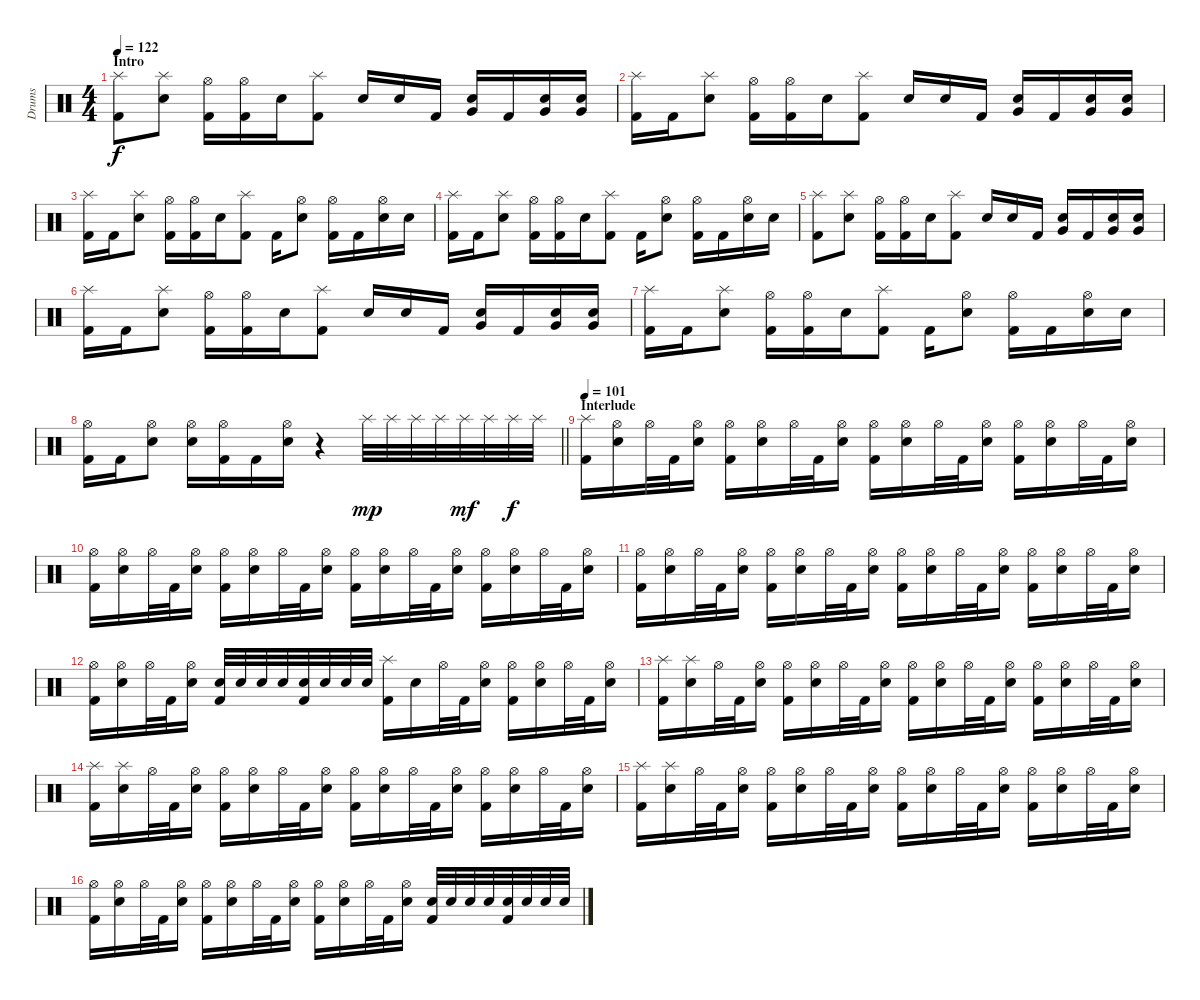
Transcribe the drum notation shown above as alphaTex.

\track ("Drums" "Drums") {instrument percussion}
\staff {score}
\articulation defaults
\ts (4 4)
\section ("" "Intro")
\tempo 122
\clef neutral
\ks c
("Splash (hit)" "Kick (hit) 2").8{dy f} ("Splash (hit)" "Electric Snare (hit)").8 ("Hi-Hat (open)" "Kick (hit) 2").16 ("Hi-Hat (open)" "Kick (hit) 2").16 "Electric Snare (hit)".16 ("Splash (hit)" "Kick (hit) 2").8 "Electric Snare (hit)".16 "Electric Snare (hit)".16 "Kick (hit) 2".16 ("Very Low Tom (hit)" "Electric Snare (hit)").16 "Kick (hit) 2".16 ("Very Low Tom (hit)" "Electric Snare (hit)").16 ("Very Low Tom (hit)" "Electric Snare (hit)").16 |
("Splash (hit)" "Kick (hit) 2").16 "Kick (hit) 2".16 ("Splash (hit)" "Electric Snare (hit)").8 ("Hi-Hat (open)" "Kick (hit) 2").16 ("Hi-Hat (open)" "Kick (hit) 2").16 "Electric Snare (hit)".16 ("Splash (hit)" "Kick (hit) 2").8 "Electric Snare (hit)".16 "Electric Snare (hit)".16 "Kick (hit) 2".16 ("Very Low Tom (hit)" "Electric Snare (hit)").16 "Kick (hit) 2".16 ("Very Low Tom (hit)" "Electric Snare (hit)").16 ("Very Low Tom (hit)" "Electric Snare (hit)").16 |
("Splash (hit)" "Kick (hit) 2").16 "Kick (hit) 2".16 ("Splash (hit)" "Electric Snare (hit)").8 ("Hi-Hat (open)" "Kick (hit) 2").16 ("Hi-Hat (open)" "Kick (hit) 2").16 "Electric Snare (hit)".16 ("Splash (hit)" "Kick (hit) 2").8 "Kick (hit) 2".16 ("Hi-Hat (open)" "Electric Snare (hit)").8 ("Hi-Hat (open)" "Kick (hit) 2").16 "Kick (hit) 2".16 ("Hi-Hat (open)" "Electric Snare (hit)").16 "Electric Snare (hit)".16 |
("Splash (hit)" "Kick (hit) 2").16 "Kick (hit) 2".16 ("Splash (hit)" "Electric Snare (hit)").8 ("Hi-Hat (open)" "Kick (hit) 2").16 ("Hi-Hat (open)" "Kick (hit) 2").16 "Electric Snare (hit)".16 ("Splash (hit)" "Kick (hit) 2").8 "Kick (hit) 2".16 ("Hi-Hat (open)" "Electric Snare (hit)").8 ("Hi-Hat (open)" "Kick (hit) 2").16 "Kick (hit) 2".16 ("Hi-Hat (open)" "Electric Snare (hit)").16 "Electric Snare (hit)".16 |
("Splash (hit)" "Kick (hit) 2").8 ("Splash (hit)" "Electric Snare (hit)").8 ("Hi-Hat (open)" "Kick (hit) 2").16 ("Hi-Hat (open)" "Kick (hit) 2").16 "Electric Snare (hit)".16 ("Splash (hit)" "Kick (hit) 2").8 "Electric Snare (hit)".16 "Electric Snare (hit)".16 "Kick (hit) 2".16 ("Very Low Tom (hit)" "Electric Snare (hit)").16 "Kick (hit) 2".16 ("Very Low Tom (hit)" "Electric Snare (hit)").16 ("Very Low Tom (hit)" "Electric Snare (hit)").16 |
("Splash (hit)" "Kick (hit) 2").16 "Kick (hit) 2".16 ("Splash (hit)" "Electric Snare (hit)").8 ("Hi-Hat (open)" "Kick (hit) 2").16 ("Hi-Hat (open)" "Kick (hit) 2").16 "Electric Snare (hit)".16 ("Splash (hit)" "Kick (hit) 2").8 "Electric Snare (hit)".16 "Electric Snare (hit)".16 "Kick (hit) 2".16 ("Very Low Tom (hit)" "Electric Snare (hit)").16 "Kick (hit) 2".16 ("Very Low Tom (hit)" "Electric Snare (hit)").16 ("Very Low Tom (hit)" "Electric Snare (hit)").16 |
("Splash (hit)" "Kick (hit) 2").16 "Kick (hit) 2".16 ("Splash (hit)" "Electric Snare (hit)").8 ("Hi-Hat (open)" "Kick (hit) 2").16 ("Hi-Hat (open)" "Kick (hit) 2").16 "Electric Snare (hit)".16 ("Splash (hit)" "Kick (hit) 2").8 "Kick (hit) 2".16 ("Hi-Hat (open)" "Electric Snare (hit)").8 ("Hi-Hat (open)" "Kick (hit) 2").16 "Kick (hit) 2".16 ("Hi-Hat (open)" "Electric Snare (hit)").16 "Electric Snare (hit)".16 |
\barLineRight lightlight
("Hi-Hat (open)" "Kick (hit) 2").16 "Kick (hit) 2".16 ("Hi-Hat (open)" "Electric Snare (hit)").8 ("Hi-Hat (open)" "Electric Snare (hit)").16 ("Hi-Hat (open)" "Kick (hit) 2").16 "Kick (hit) 2".16 ("Hi-Hat (open)" "Electric Snare (hit)").16 r.4 "Splash (hit)".32{dy mp} "Splash (hit)".32 "Splash (hit)".32 "Splash (hit)".32 "Splash (hit)".32{dy mf} "Splash (hit)".32 "Splash (hit)".32{dy f} "Splash (hit)".32 |
\section ("" "Interlude")
\tempo 101
("Splash (hit)" "Kick (hit) 2").16 ("Hi-Hat (open)" "Electric Snare (hit)").16 "Hi-Hat (open)".32 "Kick (hit) 2".32 ("Hi-Hat (open)" "Electric Snare (hit)").16 ("Hi-Hat (open)" "Kick (hit) 2").16 ("Hi-Hat (open)" "Electric Snare (hit)").16 "Hi-Hat (open)".32 "Kick (hit) 2".32 ("Hi-Hat (open)" "Electric Snare (hit)").16 ("Hi-Hat (open)" "Kick (hit) 2").16 ("Hi-Hat (open)" "Electric Snare (hit)").16 "Hi-Hat (open)".32 "Kick (hit) 2".32 ("Hi-Hat (open)" "Electric Snare (hit)").16 ("Hi-Hat (open)" "Kick (hit) 2").16 ("Hi-Hat (open)" "Electric Snare (hit)").16 "Hi-Hat (open)".32 "Kick (hit) 2".32 ("Hi-Hat (open)" "Electric Snare (hit)").16 |
("Hi-Hat (open)" "Kick (hit) 2").16 ("Hi-Hat (open)" "Electric Snare (hit)").16 "Hi-Hat (open)".32 "Kick (hit) 2".32 ("Hi-Hat (open)" "Electric Snare (hit)").16 ("Hi-Hat (open)" "Kick (hit) 2").16 ("Hi-Hat (open)" "Electric Snare (hit)").16 "Hi-Hat (open)".32 "Kick (hit) 2".32 ("Hi-Hat (open)" "Electric Snare (hit)").16 ("Hi-Hat (open)" "Kick (hit) 2").16 ("Hi-Hat (open)" "Electric Snare (hit)").16 "Hi-Hat (open)".32 "Kick (hit) 2".32 ("Hi-Hat (open)" "Electric Snare (hit)").16 ("Hi-Hat (open)" "Kick (hit) 2").16 ("Hi-Hat (open)" "Electric Snare (hit)").16 "Hi-Hat (open)".32 "Kick (hit) 2".32 ("Hi-Hat (open)" "Electric Snare (hit)").16 |
("Hi-Hat (open)" "Kick (hit) 2").16 ("Hi-Hat (open)" "Electric Snare (hit)").16 "Hi-Hat (open)".32 "Kick (hit) 2".32 ("Hi-Hat (open)" "Electric Snare (hit)").16 ("Hi-Hat (open)" "Kick (hit) 2").16 ("Hi-Hat (open)" "Electric Snare (hit)").16 "Hi-Hat (open)".32 "Kick (hit) 2".32 ("Hi-Hat (open)" "Electric Snare (hit)").16 ("Hi-Hat (open)" "Kick (hit) 2").16 ("Hi-Hat (open)" "Electric Snare (hit)").16 "Hi-Hat (open)".32 "Kick (hit) 2".32 ("Hi-Hat (open)" "Electric Snare (hit)").16 ("Hi-Hat (open)" "Kick (hit) 2").16 ("Hi-Hat (open)" "Electric Snare (hit)").16 "Hi-Hat (open)".32 "Kick (hit) 2".32 ("Hi-Hat (open)" "Electric Snare (hit)").16 |
("Hi-Hat (open)" "Kick (hit) 2").16 ("Hi-Hat (open)" "Electric Snare (hit)").16 "Hi-Hat (open)".32 "Kick (hit) 2".32 ("Hi-Hat (open)" "Electric Snare (hit)").16 ("Electric Snare (hit)" "Kick (hit) 2").32 "Electric Snare (hit)".32 "Electric Snare (hit)".32 "Electric Snare (hit)".32 ("Electric Snare (hit)" "Kick (hit) 2").32 "Electric Snare (hit)".32 "Electric Snare (hit)".32 "Electric Snare (hit)".32 ("Splash (hit)" "Kick (hit) 2").16 "Electric Snare (hit)".16 "Hi-Hat (open)".32 "Kick (hit) 2".32 ("Hi-Hat (open)" "Electric Snare (hit)").16 ("Hi-Hat (open)" "Kick (hit) 2").16 ("Hi-Hat (open)" "Electric Snare (hit)").16 "Hi-Hat (open)".32 "Kick (hit) 2".32 ("Hi-Hat (open)" "Electric Snare (hit)").16 |
("Splash (hit)" "Kick (hit) 2").16 ("Splash (hit)" "Electric Snare (hit)").16 "Hi-Hat (open)".32 "Kick (hit) 2".32 ("Hi-Hat (open)" "Electric Snare (hit)").16 ("Hi-Hat (open)" "Kick (hit) 2").16 ("Hi-Hat (open)" "Electric Snare (hit)").16 "Hi-Hat (open)".32 "Kick (hit) 2".32 ("Hi-Hat (open)" "Electric Snare (hit)").16 ("Hi-Hat (open)" "Kick (hit) 2").16 ("Hi-Hat (open)" "Electric Snare (hit)").16 "Hi-Hat (open)".32 "Kick (hit) 2".32 ("Hi-Hat (open)" "Electric Snare (hit)").16 ("Hi-Hat (open)" "Kick (hit) 2").16 ("Hi-Hat (open)" "Electric Snare (hit)").16 "Hi-Hat (open)".32 "Kick (hit) 2".32 ("Hi-Hat (open)" "Electric Snare (hit)").16 |
("Splash (hit)" "Kick (hit) 2").16 ("Splash (hit)" "Electric Snare (hit)").16 "Hi-Hat (open)".32 "Kick (hit) 2".32 ("Hi-Hat (open)" "Electric Snare (hit)").16 ("Hi-Hat (open)" "Kick (hit) 2").16 ("Hi-Hat (open)" "Electric Snare (hit)").16 "Hi-Hat (open)".32 "Kick (hit) 2".32 ("Hi-Hat (open)" "Electric Snare (hit)").16 ("Hi-Hat (open)" "Kick (hit) 2").16 ("Hi-Hat (open)" "Electric Snare (hit)").16 "Hi-Hat (open)".32 "Kick (hit) 2".32 ("Hi-Hat (open)" "Electric Snare (hit)").16 ("Hi-Hat (open)" "Kick (hit) 2").16 ("Hi-Hat (open)" "Electric Snare (hit)").16 "Hi-Hat (open)".32 "Kick (hit) 2".32 ("Hi-Hat (open)" "Electric Snare (hit)").16 |
("Splash (hit)" "Kick (hit) 2").16 ("Splash (hit)" "Electric Snare (hit)").16 "Hi-Hat (open)".32 "Kick (hit) 2".32 ("Hi-Hat (open)" "Electric Snare (hit)").16 ("Hi-Hat (open)" "Kick (hit) 2").16 ("Hi-Hat (open)" "Electric Snare (hit)").16 "Hi-Hat (open)".32 "Kick (hit) 2".32 ("Hi-Hat (open)" "Electric Snare (hit)").16 ("Hi-Hat (open)" "Kick (hit) 2").16 ("Hi-Hat (open)" "Electric Snare (hit)").16 "Hi-Hat (open)".32 "Kick (hit) 2".32 ("Hi-Hat (open)" "Electric Snare (hit)").16 ("Hi-Hat (open)" "Kick (hit) 2").16 ("Hi-Hat (open)" "Electric Snare (hit)").16 "Hi-Hat (open)".32 "Kick (hit) 2".32 ("Hi-Hat (open)" "Electric Snare (hit)").16 |
("Hi-Hat (open)" "Kick (hit) 2").16 ("Hi-Hat (open)" "Electric Snare (hit)").16 "Hi-Hat (open)".32 "Kick (hit) 2".32 ("Hi-Hat (open)" "Electric Snare (hit)").16 ("Hi-Hat (open)" "Kick (hit) 2").16 ("Hi-Hat (open)" "Electric Snare (hit)").16 "Hi-Hat (open)".32 "Kick (hit) 2".32 ("Hi-Hat (open)" "Electric Snare (hit)").16 ("Hi-Hat (open)" "Kick (hit) 2").16 ("Hi-Hat (open)" "Electric Snare (hit)").16 "Hi-Hat (open)".32 "Kick (hit) 2".32 ("Hi-Hat (open)" "Electric Snare (hit)").16 ("Electric Snare (hit)" "Kick (hit) 2").32 "Electric Snare (hit)".32 "Electric Snare (hit)".32 "Electric Snare (hit)".32 ("Electric Snare (hit)" "Kick (hit) 2").32 "Electric Snare (hit)".32 "Electric Snare (hit)".32 "Electric Snare (hit)".32
